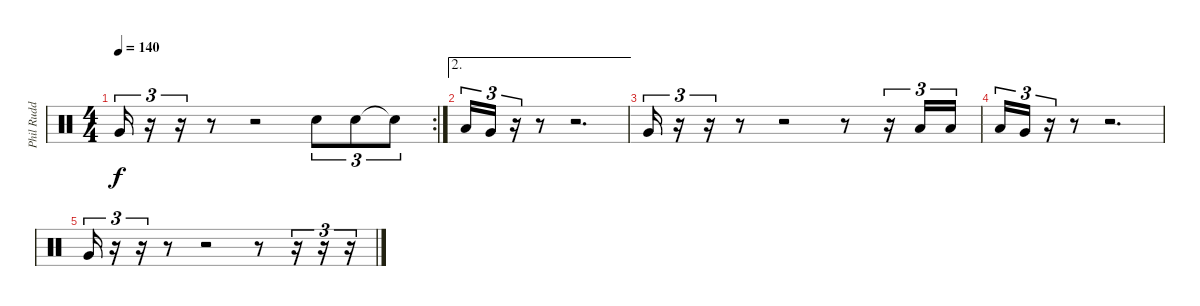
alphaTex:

\track ("Phil Rudd" "Phil Rudd") {instrument percussion}
\staff {score}
\articulation defaults
\rc 2
\ts (4 4)
\tempo 140
\clef neutral
\ks c "Very Low Tom (hit)".16{tu (3 2) dy f}
r.16{tu (3 2)} r.16{tu (3 2)} r.8 r.2 "Electric Snare (hit)".8{tu (3 2)} "Electric Snare (hit)".8{tu (3 2)} "Snare (hit)"{t}.8{tu (3 2)} |
\ae 2 "Low Floor Tom (hit)".16{tu (3 2)} "Very Low Tom (hit)".16{tu (3 2)}
r.16{tu (3 2)} r.8 r.2{d} |
"Very Low Tom (hit)".16{tu (3 2)} r.16{tu (3 2)} r.16{tu (3 2)} r.8 r.2 r.8 r.16{tu (3 2)} "Low Tom (hit)".16{tu (3 2)} "Low Tom (hit)".16{tu (3 2)} |
"Low Floor Tom (hit)".16{tu (3 2)} "Very Low Tom (hit)".16{tu (3 2)} r.16{tu (3 2)} r.8 r.2{d} |
"Very Low Tom (hit)".16{tu (3 2)} r.16{tu (3 2)} r.16{tu (3 2)} r.8 r.2 r.8 r.16{tu (3 2)} r.16{tu (3 2)} r.16{tu (3 2)}
